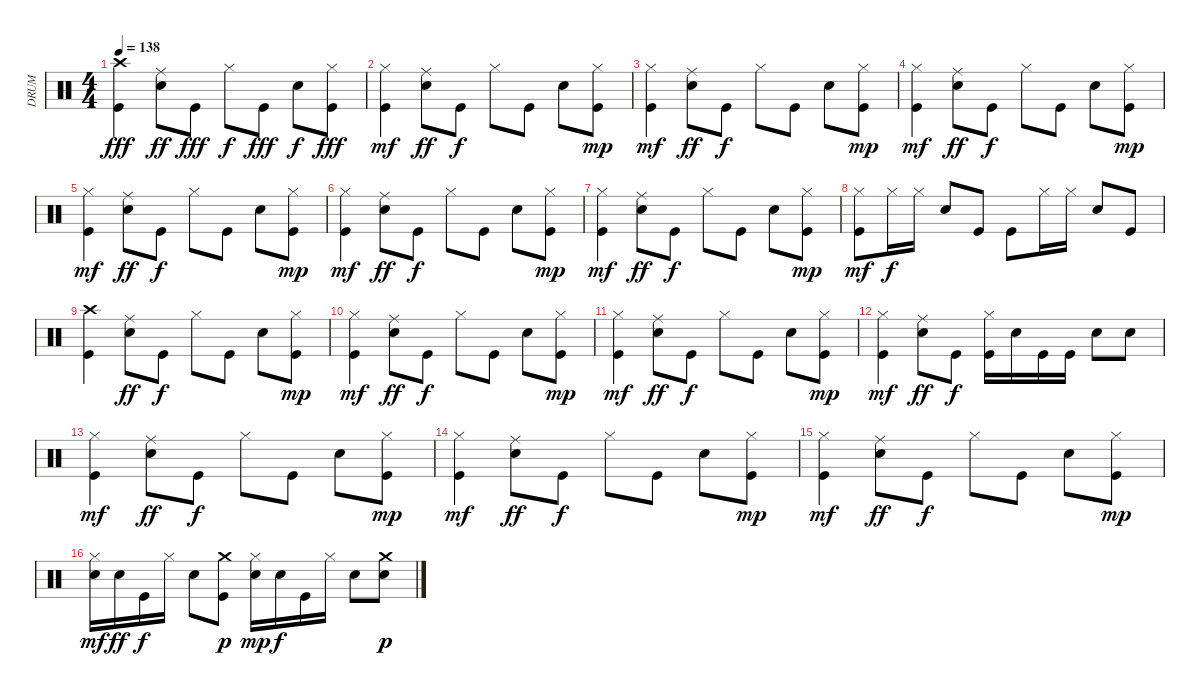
\track ("DRUM" "DRUM") {instrument percussion}
\staff {score}
\articulation defaults
\ts (4 4)
\tempo 138
\clef neutral
\ks c
("Crash high (hit)" "Kick (hit)").4{dy fff} ("Ride (middle)" "Snare (hit) 2").8{dy ff} "Kick (hit)".8{dy fff} "Hi-Hat (closed)".8{dy f} "Kick (hit)".8{dy fff} "Snare (hit) 2".8{dy f} ("Hi-Hat (closed)" "Kick (hit)").8{dy fff} |
("Hi-Hat (closed)" "Kick (hit)").4{dy mf} ("Ride (middle)" "Snare (hit) 2").8{dy ff} "Kick (hit)".8{dy f} "Hi-Hat (closed)".8 "Kick (hit)".8 "Snare (hit) 2".8 ("Hi-Hat (closed)" "Kick (hit)").8{dy mp} |
("Hi-Hat (closed)" "Kick (hit)").4{dy mf} ("Ride (middle)" "Snare (hit) 2").8{dy ff} "Kick (hit)".8{dy f} "Hi-Hat (closed)".8 "Kick (hit)".8 "Snare (hit) 2".8 ("Hi-Hat (closed)" "Kick (hit)").8{dy mp} |
("Hi-Hat (closed)" "Kick (hit)").4{dy mf} ("Ride (middle)" "Snare (hit) 2").8{dy ff} "Kick (hit)".8{dy f} "Hi-Hat (closed)".8 "Kick (hit)".8 "Snare (hit) 2".8 ("Hi-Hat (closed)" "Kick (hit)").8{dy mp} |
("Hi-Hat (closed)" "Kick (hit)").4{dy mf} ("Ride (middle)" "Snare (hit) 2").8{dy ff} "Kick (hit)".8{dy f} "Hi-Hat (closed)".8 "Kick (hit)".8 "Snare (hit) 2".8 ("Hi-Hat (closed)" "Kick (hit)").8{dy mp} |
("Hi-Hat (closed)" "Kick (hit)").4{dy mf} ("Ride (middle)" "Snare (hit) 2").8{dy ff} "Kick (hit)".8{dy f} "Hi-Hat (closed)".8 "Kick (hit)".8 "Snare (hit) 2".8 ("Hi-Hat (closed)" "Kick (hit)").8{dy mp} |
("Hi-Hat (closed)" "Kick (hit)").4{dy mf} ("Ride (middle)" "Snare (hit) 2").8{dy ff} "Kick (hit)".8{dy f} "Hi-Hat (closed)".8 "Kick (hit)".8 "Snare (hit) 2".8 ("Hi-Hat (closed)" "Kick (hit)").8{dy mp} |
("Hi-Hat (closed)" "Kick (hit)").8{dy mf} "Hi-Hat (closed)".16{dy f} "Hi-Hat (closed)".16 "Snare (hit) 2".8 "Kick (hit)".8 "Kick (hit)".8 "Hi-Hat (closed)".16 "Hi-Hat (closed)".16 "Snare (hit) 2".8 "Kick (hit)".8 |
("Crash high (hit)" "Kick (hit)").4 ("Ride (middle)" "Snare (hit) 2").8{dy ff} "Kick (hit)".8{dy f} "Hi-Hat (closed)".8 "Kick (hit)".8 "Snare (hit) 2".8 ("Hi-Hat (closed)" "Kick (hit)").8{dy mp} |
("Hi-Hat (closed)" "Kick (hit)").4{dy mf} ("Ride (middle)" "Snare (hit) 2").8{dy ff} "Kick (hit)".8{dy f} "Hi-Hat (closed)".8 "Kick (hit)".8 "Snare (hit) 2".8 ("Hi-Hat (closed)" "Kick (hit)").8{dy mp} |
("Hi-Hat (closed)" "Kick (hit)").4{dy mf} ("Ride (middle)" "Snare (hit) 2").8{dy ff} "Kick (hit)".8{dy f} "Hi-Hat (closed)".8 "Kick (hit)".8 "Snare (hit) 2".8 ("Hi-Hat (closed)" "Kick (hit)").8{dy mp} |
("Hi-Hat (closed)" "Kick (hit)").4{dy mf} ("Ride (middle)" "Snare (hit) 2").8{dy ff} "Kick (hit)".8{dy f} ("Hi-Hat (closed)" "Kick (hit)").16 "Snare (hit) 2".16 "Kick (hit)".16 "Kick (hit)".16 "Snare (hit) 2".8 "Snare (hit) 2".8 |
("Hi-Hat (closed)" "Kick (hit)").4{dy mf} ("Ride (middle)" "Snare (hit) 2").8{dy ff} "Kick (hit)".8{dy f} "Hi-Hat (closed)".8 "Kick (hit)".8 "Snare (hit) 2".8 ("Hi-Hat (closed)" "Kick (hit)").8{dy mp} |
("Hi-Hat (closed)" "Kick (hit)").4{dy mf} ("Ride (middle)" "Snare (hit) 2").8{dy ff} "Kick (hit)".8{dy f} "Hi-Hat (closed)".8 "Kick (hit)".8 "Snare (hit) 2".8 ("Hi-Hat (closed)" "Kick (hit)").8{dy mp} |
("Hi-Hat (closed)" "Kick (hit)").4{dy mf} ("Ride (middle)" "Snare (hit) 2").8{dy ff} "Kick (hit)".8{dy f} "Hi-Hat (closed)".8 "Kick (hit)".8 "Snare (hit) 2".8 ("Hi-Hat (closed)" "Kick (hit)").8{dy mp} |
("Hi-Hat (closed)" "Snare (hit) 2").16{dy mf} "Snare (hit) 2".16{dy ff} "Kick (hit)".16{dy f} "Hi-Hat (closed)".16 "Snare (hit) 2".8 ("Kick (hit)" "Crash medium (hit)").8{dy p} ("Hi-Hat (closed)" "Snare (hit) 2").16{dy mp} "Snare (hit) 2".16{dy f} "Kick (hit)".16 "Hi-Hat (closed)".16 "Snare (hit) 2".8 ("Snare (hit) 2" "Crash medium (hit)").8{dy p}
